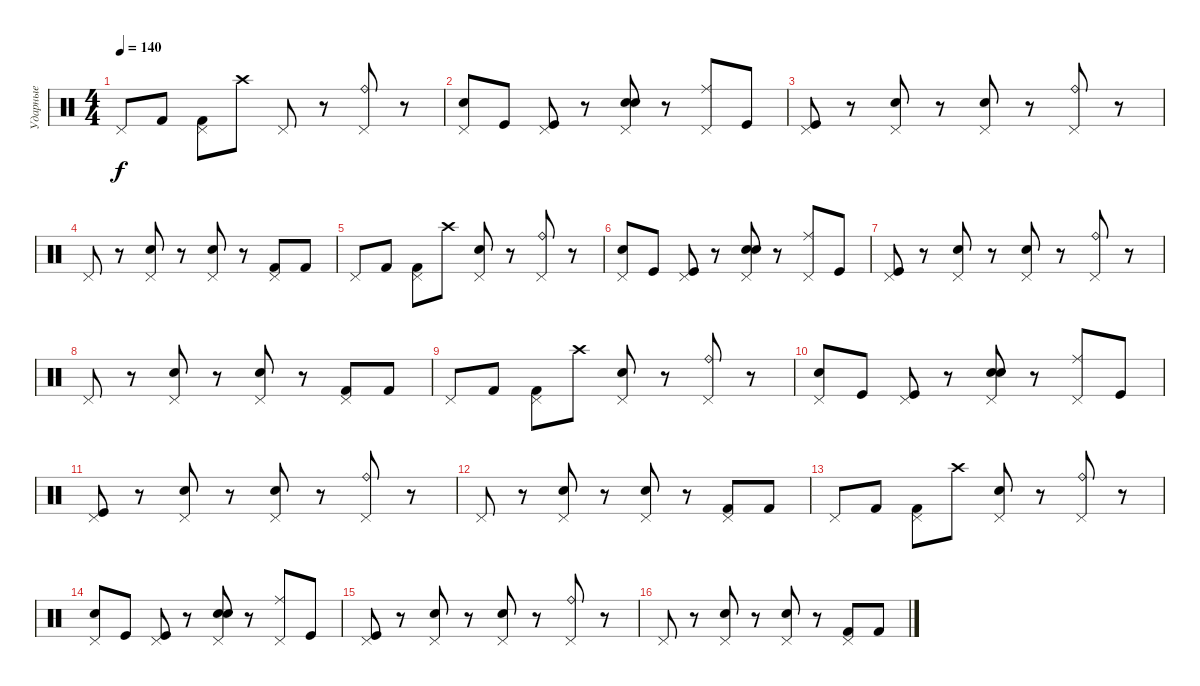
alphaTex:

\track ("Ударные" "Ударные") {instrument percussion bank 7}
\staff {score}
\articulation defaults
\ts (4 4)
\tempo 140
\clef neutral
\ks c "Pedal Hi-Hat (hit)".8{dy f} "Kick (hit) 2".8
("Pedal Hi-Hat (hit)" "Kick (hit) 2").8 "Crash high (hit)".8 "Pedal Hi-Hat (hit)".8 r.8 ("Pedal Hi-Hat (hit)" "Ride (bell)").8 r.8 |
("Pedal Hi-Hat (hit)" "Snare (hit) 2").8 "Kick (hit)".8 ("Pedal Hi-Hat (hit)" "Kick (hit)").8 r.8 ("Pedal Hi-Hat (hit)" "Electric Snare (hit)" "Metronome (bell)").8 r.8 ("Pedal Hi-Hat (hit)" "Ride (middle)").8 "Kick (hit)".8 |
("Pedal Hi-Hat (hit)" "Kick (hit)").8 r.8 ("Pedal Hi-Hat (hit)" "Electric Snare (hit)").8 r.8 ("Pedal Hi-Hat (hit)" "Metronome (bell)").8 r.8 ("Pedal Hi-Hat (hit)" "Ride (bell)").8 r.8 |
"Pedal Hi-Hat (hit)".8 r.8 ("Pedal Hi-Hat (hit)" "Electric Snare (hit)").8 r.8 ("Pedal Hi-Hat (hit)" "Metronome (bell)").8 r.8 ("Pedal Hi-Hat (hit)" "Kick (hit) 2").8 "Kick (hit) 2".8 |
"Pedal Hi-Hat (hit)".8 "Kick (hit) 2".8 ("Pedal Hi-Hat (hit)" "Kick (hit) 2").8 "Crash high (hit)".8 ("Pedal Hi-Hat (hit)" "Metronome (bell)").8 r.8 ("Pedal Hi-Hat (hit)" "Ride (bell)").8 r.8 |
("Pedal Hi-Hat (hit)" "Snare (hit) 2").8 "Kick (hit)".8 ("Pedal Hi-Hat (hit)" "Kick (hit)").8 r.8 ("Pedal Hi-Hat (hit)" "Electric Snare (hit)" "Metronome (bell)").8 r.8 ("Pedal Hi-Hat (hit)" "Ride (middle)").8 "Kick (hit)".8 |
("Pedal Hi-Hat (hit)" "Kick (hit)").8 r.8 ("Pedal Hi-Hat (hit)" "Electric Snare (hit)").8 r.8 ("Pedal Hi-Hat (hit)" "Metronome (bell)").8 r.8 ("Pedal Hi-Hat (hit)" "Ride (bell)").8 r.8 |
"Pedal Hi-Hat (hit)".8 r.8 ("Pedal Hi-Hat (hit)" "Electric Snare (hit)").8 r.8 ("Pedal Hi-Hat (hit)" "Metronome (bell)").8 r.8 ("Pedal Hi-Hat (hit)" "Kick (hit) 2").8 "Kick (hit) 2".8 |
"Pedal Hi-Hat (hit)".8 "Kick (hit) 2".8 ("Pedal Hi-Hat (hit)" "Kick (hit) 2").8 "Crash high (hit)".8 ("Pedal Hi-Hat (hit)" "Metronome (bell)").8 r.8 ("Pedal Hi-Hat (hit)" "Ride (bell)").8 r.8 |
("Pedal Hi-Hat (hit)" "Snare (hit) 2").8 "Kick (hit)".8 ("Pedal Hi-Hat (hit)" "Kick (hit)").8 r.8 ("Pedal Hi-Hat (hit)" "Electric Snare (hit)" "Metronome (bell)").8 r.8 ("Pedal Hi-Hat (hit)" "Ride (middle)").8 "Kick (hit)".8 |
("Pedal Hi-Hat (hit)" "Kick (hit)").8 r.8 ("Pedal Hi-Hat (hit)" "Electric Snare (hit)").8 r.8 ("Pedal Hi-Hat (hit)" "Metronome (bell)").8 r.8 ("Pedal Hi-Hat (hit)" "Ride (bell)").8 r.8 |
"Pedal Hi-Hat (hit)".8 r.8 ("Pedal Hi-Hat (hit)" "Electric Snare (hit)").8 r.8 ("Pedal Hi-Hat (hit)" "Metronome (bell)").8 r.8 ("Pedal Hi-Hat (hit)" "Kick (hit) 2").8 "Kick (hit) 2".8 |
"Pedal Hi-Hat (hit)".8 "Kick (hit) 2".8 ("Pedal Hi-Hat (hit)" "Kick (hit) 2").8 "Crash high (hit)".8 ("Pedal Hi-Hat (hit)" "Metronome (bell)").8 r.8 ("Pedal Hi-Hat (hit)" "Ride (bell)").8 r.8 |
("Pedal Hi-Hat (hit)" "Snare (hit) 2").8 "Kick (hit)".8 ("Pedal Hi-Hat (hit)" "Kick (hit)").8 r.8 ("Pedal Hi-Hat (hit)" "Electric Snare (hit)" "Metronome (bell)").8 r.8 ("Pedal Hi-Hat (hit)" "Ride (middle)").8 "Kick (hit)".8 |
("Pedal Hi-Hat (hit)" "Kick (hit)").8 r.8 ("Pedal Hi-Hat (hit)" "Electric Snare (hit)").8 r.8 ("Pedal Hi-Hat (hit)" "Metronome (bell)").8 r.8 ("Pedal Hi-Hat (hit)" "Ride (bell)").8 r.8 |
"Pedal Hi-Hat (hit)".8 r.8 ("Pedal Hi-Hat (hit)" "Electric Snare (hit)").8 r.8 ("Pedal Hi-Hat (hit)" "Metronome (bell)").8 r.8 ("Pedal Hi-Hat (hit)" "Kick (hit) 2").8 "Kick (hit) 2".8
